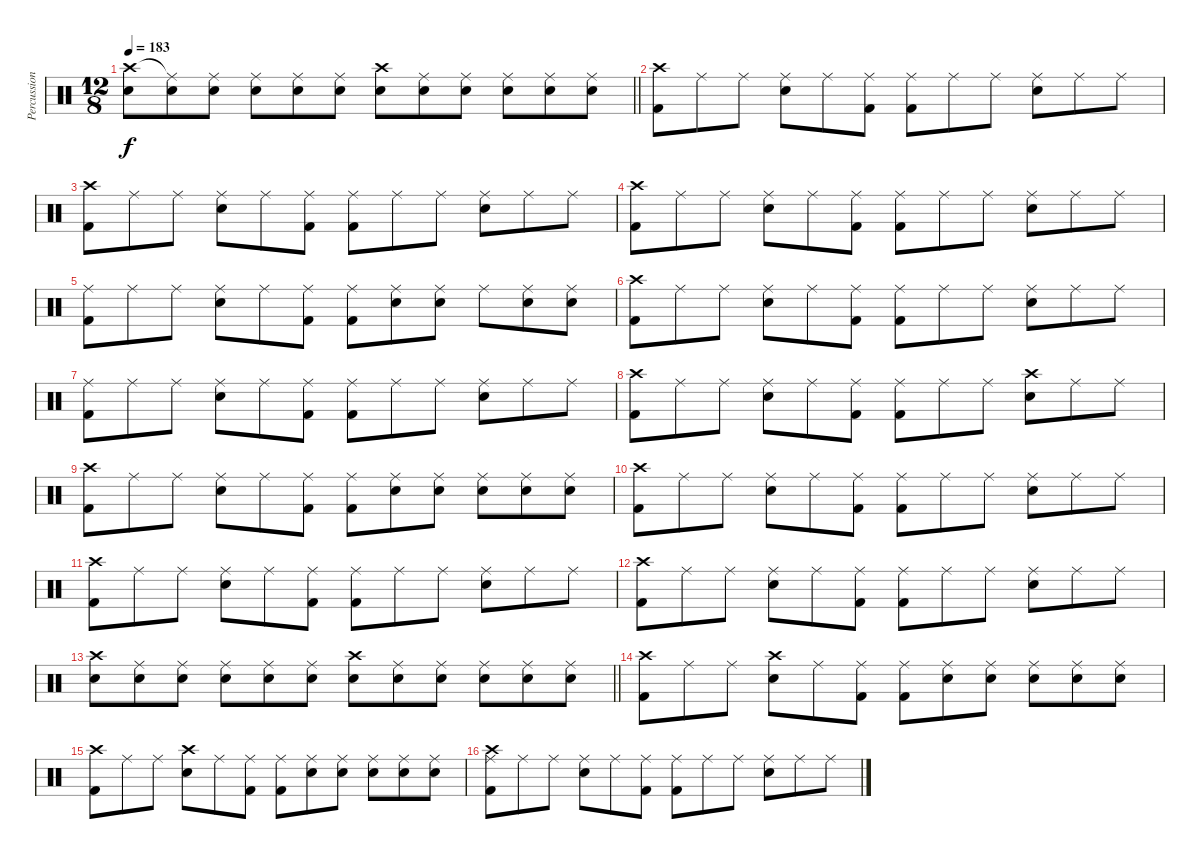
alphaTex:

\track ("Percussion" "Percussion") {instrument percussion}
\staff {score}
\articulation defaults
\ts (12 8)
\tempo 183
\clef neutral
\barLineRight lightlight
\ks c
("Crash high (hit)" "Snare (hit) 2").8{dy f} ("Ride (middle)"{t} "Snare (hit) 2").8 ("Ride (middle)" "Snare (hit) 2").8 ("Ride (middle)" "Snare (hit) 2").8 ("Ride (middle)" "Snare (hit) 2").8 ("Ride (middle)" "Snare (hit) 2").8 ("Crash high (hit)" "Snare (hit) 2").8 ("Ride (middle)" "Snare (hit) 2").8 ("Ride (middle)" "Snare (hit) 2").8 ("Ride (middle)" "Snare (hit) 2").8 ("Ride (middle)" "Snare (hit) 2").8 ("Ride (middle)" "Snare (hit) 2").8 |
("Crash high (hit)" "Kick (hit) 2").8 "Ride (middle)".8 "Ride (middle)".8 ("Ride (middle)" "Snare (hit) 2").8 "Ride (middle)".8 ("Ride (middle)" "Kick (hit) 2").8 ("Ride (middle)" "Kick (hit) 2").8 "Ride (middle)".8 "Ride (middle)".8 ("Ride (middle)" "Snare (hit) 2").8 "Ride (middle)".8 "Ride (middle)".8 |
("Crash high (hit)" "Kick (hit) 2").8 "Ride (middle)".8 "Ride (middle)".8 ("Ride (middle)" "Snare (hit) 2").8 "Ride (middle)".8 ("Ride (middle)" "Kick (hit) 2").8 ("Ride (middle)" "Kick (hit) 2").8 "Ride (middle)".8 "Ride (middle)".8 ("Ride (middle)" "Snare (hit) 2").8 "Ride (middle)".8 "Ride (middle)".8 |
("Crash high (hit)" "Kick (hit) 2").8 "Ride (middle)".8 "Ride (middle)".8 ("Ride (middle)" "Snare (hit) 2").8 "Ride (middle)".8 ("Ride (middle)" "Kick (hit) 2").8 ("Ride (middle)" "Kick (hit) 2").8 "Ride (middle)".8 "Ride (middle)".8 ("Ride (middle)" "Snare (hit) 2").8 "Ride (middle)".8 "Ride (middle)".8 |
("Ride (middle)" "Kick (hit) 2").8 "Ride (middle)".8 "Ride (middle)".8 ("Ride (middle)" "Snare (hit) 2").8 "Ride (middle)".8 ("Ride (middle)" "Kick (hit) 2").8 ("Ride (middle)" "Kick (hit) 2").8 ("Ride (middle)" "Snare (hit) 2").8 ("Ride (middle)" "Snare (hit) 2").8 "Ride (middle)".8 ("Ride (middle)" "Snare (hit) 2").8 ("Ride (middle)" "Snare (hit) 2").8 |
("Crash high (hit)" "Kick (hit) 2").8 "Ride (middle)".8 "Ride (middle)".8 ("Ride (middle)" "Snare (hit) 2").8 "Ride (middle)".8 ("Ride (middle)" "Kick (hit) 2").8 ("Ride (middle)" "Kick (hit) 2").8 "Ride (middle)".8 "Ride (middle)".8 ("Ride (middle)" "Snare (hit) 2").8 "Ride (middle)".8 "Ride (middle)".8 |
("Ride (middle)" "Kick (hit) 2").8 "Ride (middle)".8 "Ride (middle)".8 ("Ride (middle)" "Snare (hit) 2").8 "Ride (middle)".8 ("Ride (middle)" "Kick (hit) 2").8 ("Ride (middle)" "Kick (hit) 2").8 "Ride (middle)".8 "Ride (middle)".8 ("Ride (middle)" "Snare (hit) 2").8 "Ride (middle)".8 "Ride (middle)".8 |
("Crash high (hit)" "Kick (hit) 2").8 "Ride (middle)".8 "Ride (middle)".8 ("Ride (middle)" "Snare (hit) 2").8 "Ride (middle)".8 ("Ride (middle)" "Kick (hit) 2").8 ("Ride (middle)" "Kick (hit) 2").8 "Ride (middle)".8 "Ride (middle)".8 ("Crash high (hit)" "Snare (hit) 2").8 "Ride (middle)".8 "Ride (middle)".8 |
("Crash high (hit)" "Kick (hit) 2").8 "Ride (middle)".8 "Ride (middle)".8 ("Ride (middle)" "Snare (hit) 2").8 "Ride (middle)".8 ("Ride (middle)" "Kick (hit) 2").8 ("Ride (middle)" "Kick (hit) 2").8 ("Ride (middle)" "Snare (hit) 2").8 ("Ride (middle)" "Snare (hit) 2").8 ("Ride (middle)" "Snare (hit) 2").8 ("Ride (middle)" "Snare (hit) 2").8 ("Ride (middle)" "Snare (hit) 2").8 |
("Crash high (hit)" "Kick (hit) 2").8 "Ride (middle)".8 "Ride (middle)".8 ("Ride (middle)" "Snare (hit) 2").8 "Ride (middle)".8 ("Ride (middle)" "Kick (hit) 2").8 ("Ride (middle)" "Kick (hit) 2").8 "Ride (middle)".8 "Ride (middle)".8 ("Ride (middle)" "Snare (hit) 2").8 "Ride (middle)".8 "Ride (middle)".8 |
("Crash high (hit)" "Kick (hit) 2").8 "Ride (middle)".8 "Ride (middle)".8 ("Ride (middle)" "Snare (hit) 2").8 "Ride (middle)".8 ("Ride (middle)" "Kick (hit) 2").8 ("Ride (middle)" "Kick (hit) 2").8 "Ride (middle)".8 "Ride (middle)".8 ("Ride (middle)" "Snare (hit) 2").8 "Ride (middle)".8 "Ride (middle)".8 |
("Crash high (hit)" "Kick (hit) 2").8 "Ride (middle)".8 "Ride (middle)".8 ("Ride (middle)" "Snare (hit) 2").8 "Ride (middle)".8 ("Ride (middle)" "Kick (hit) 2").8 ("Ride (middle)" "Kick (hit) 2").8 "Ride (middle)".8 "Ride (middle)".8 ("Ride (middle)" "Snare (hit) 2").8 "Ride (middle)".8 "Ride (middle)".8 |
\barLineRight lightlight
("Crash high (hit)" "Snare (hit) 2").8 ("Ride (middle)" "Snare (hit) 2").8 ("Ride (middle)" "Snare (hit) 2").8 ("Ride (middle)" "Snare (hit) 2").8 ("Ride (middle)" "Snare (hit) 2").8 ("Ride (middle)" "Snare (hit) 2").8 ("Crash high (hit)" "Snare (hit) 2").8 ("Ride (middle)" "Snare (hit) 2").8 ("Ride (middle)" "Snare (hit) 2").8 ("Ride (middle)" "Snare (hit) 2").8 ("Ride (middle)" "Snare (hit) 2").8 ("Ride (middle)" "Snare (hit) 2").8 |
("Crash high (hit)" "Kick (hit) 2").8 "Ride (middle)".8 "Ride (middle)".8 ("Crash high (hit)" "Snare (hit) 2").8 "Ride (middle)".8 ("Ride (middle)" "Kick (hit) 2").8 ("Ride (middle)" "Kick (hit) 2").8 ("Ride (middle)" "Snare (hit) 2").8 ("Ride (middle)" "Snare (hit) 2").8 ("Ride (middle)" "Snare (hit) 2").8 ("Ride (middle)" "Snare (hit) 2").8 ("Ride (middle)" "Snare (hit) 2").8 |
("Crash high (hit)" "Kick (hit) 2").8 "Ride (middle)".8 "Ride (middle)".8 ("Crash high (hit)" "Snare (hit) 2").8 "Ride (middle)".8 ("Ride (middle)" "Kick (hit) 2").8 ("Ride (middle)" "Kick (hit) 2").8 ("Ride (middle)" "Snare (hit) 2").8 ("Ride (middle)" "Snare (hit) 2").8 ("Ride (middle)" "Snare (hit) 2").8 ("Ride (middle)" "Snare (hit) 2").8 ("Ride (middle)" "Snare (hit) 2").8 |
("Crash high (hit)" "Ride (middle)" "Kick (hit) 2").8 "Ride (middle)".8 "Ride (middle)".8 ("Ride (middle)" "Snare (hit) 2").8 "Ride (middle)".8 ("Ride (middle)" "Kick (hit) 2").8 ("Ride (middle)" "Kick (hit) 2").8 "Ride (middle)".8 "Ride (middle)".8 ("Ride (middle)" "Snare (hit) 2").8 "Ride (middle)".8 "Ride (middle)".8
